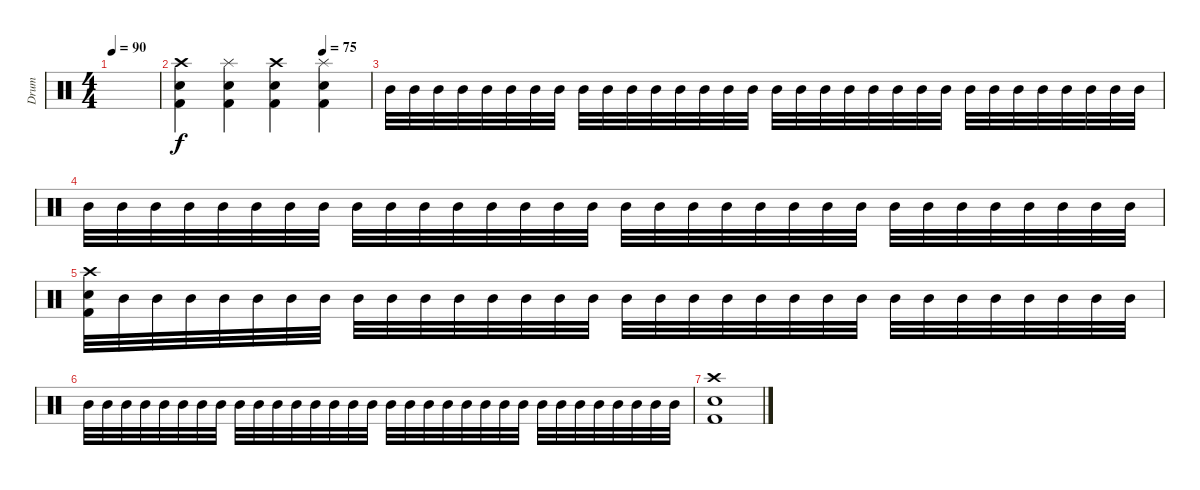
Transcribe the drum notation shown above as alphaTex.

\track ("Drum" "Drum") {instrument percussion}
\staff {score}
\articulation defaults
\ts (4 4)
\tempo 90
\clef neutral
\ks c
|
\tempo (75 0.75)
("Kick (hit) 2" "Snare (hit) 2" "Crash high (hit)").4 ("Kick (hit) 2" "Snare (hit) 2" "Splash (hit)").4 ("Kick (hit) 2" "Snare (hit) 2" "Crash high (hit)").4 ("Kick (hit) 2" "Snare (hit) 2" "Splash (hit)").4 |
"Mid Tom (hit)".32 "Mid Tom (hit)".32 "Mid Tom (hit)".32 "Mid Tom (hit)".32 "Mid Tom (hit)".32 "Mid Tom (hit)".32 "Mid Tom (hit)".32 "Mid Tom (hit)".32 "Mid Tom (hit)".32 "Mid Tom (hit)".32 "Mid Tom (hit)".32 "Mid Tom (hit)".32 "Mid Tom (hit)".32 "Mid Tom (hit)".32 "Mid Tom (hit)".32 "Mid Tom (hit)".32 "Mid Tom (hit)".32 "Mid Tom (hit)".32 "Mid Tom (hit)".32 "Mid Tom (hit)".32 "Mid Tom (hit)".32 "Mid Tom (hit)".32 "Mid Tom (hit)".32 "Mid Tom (hit)".32 "Mid Tom (hit)".32 "Mid Tom (hit)".32 "Mid Tom (hit)".32 "Mid Tom (hit)".32 "Mid Tom (hit)".32 "Mid Tom (hit)".32 "Mid Tom (hit)".32 "Mid Tom (hit)".32 |
"Mid Tom (hit)".32 "Mid Tom (hit)".32 "Mid Tom (hit)".32 "Mid Tom (hit)".32 "Mid Tom (hit)".32 "Mid Tom (hit)".32 "Mid Tom (hit)".32 "Mid Tom (hit)".32 "Mid Tom (hit)".32 "Mid Tom (hit)".32 "Mid Tom (hit)".32 "Mid Tom (hit)".32 "Mid Tom (hit)".32 "Mid Tom (hit)".32 "Mid Tom (hit)".32 "Mid Tom (hit)".32 "Mid Tom (hit)".32 "Mid Tom (hit)".32 "Mid Tom (hit)".32 "Mid Tom (hit)".32 "Mid Tom (hit)".32 "Mid Tom (hit)".32 "Mid Tom (hit)".32 "Mid Tom (hit)".32 "Mid Tom (hit)".32 "Mid Tom (hit)".32 "Mid Tom (hit)".32 "Mid Tom (hit)".32 "Mid Tom (hit)".32 "Mid Tom (hit)".32 "Mid Tom (hit)".32 "Mid Tom (hit)".32 |
("Kick (hit) 2" "Snare (hit) 2" "Crash high (hit)").32 "Mid Tom (hit)".32 "Mid Tom (hit)".32 "Mid Tom (hit)".32 "Mid Tom (hit)".32 "Mid Tom (hit)".32 "Mid Tom (hit)".32 "Mid Tom (hit)".32 "Mid Tom (hit)".32 "Mid Tom (hit)".32 "Mid Tom (hit)".32 "Mid Tom (hit)".32 "Mid Tom (hit)".32 "Mid Tom (hit)".32 "Mid Tom (hit)".32 "Mid Tom (hit)".32 "Mid Tom (hit)".32 "Mid Tom (hit)".32 "Mid Tom (hit)".32 "Mid Tom (hit)".32 "Mid Tom (hit)".32 "Mid Tom (hit)".32 "Mid Tom (hit)".32 "Mid Tom (hit)".32 "Mid Tom (hit)".32 "Mid Tom (hit)".32 "Mid Tom (hit)".32 "Mid Tom (hit)".32 "Mid Tom (hit)".32 "Mid Tom (hit)".32 "Mid Tom (hit)".32 "Mid Tom (hit)".32 |
"Mid Tom (hit)".32 "Mid Tom (hit)".32 "Mid Tom (hit)".32 "Mid Tom (hit)".32 "Mid Tom (hit)".32 "Mid Tom (hit)".32 "Mid Tom (hit)".32 "Mid Tom (hit)".32 "Mid Tom (hit)".32 "Mid Tom (hit)".32 "Mid Tom (hit)".32 "Mid Tom (hit)".32 "Mid Tom (hit)".32 "Mid Tom (hit)".32 "Mid Tom (hit)".32 "Mid Tom (hit)".32 "Mid Tom (hit)".32 "Mid Tom (hit)".32 "Mid Tom (hit)".32 "Mid Tom (hit)".32 "Mid Tom (hit)".32 "Mid Tom (hit)".32 "Mid Tom (hit)".32 "Mid Tom (hit)".32 "Mid Tom (hit)".32 "Mid Tom (hit)".32 "Mid Tom (hit)".32 "Mid Tom (hit)".32 "Mid Tom (hit)".32 "Mid Tom (hit)".32 "Mid Tom (hit)".32 "Mid Tom (hit)".32 |
("Kick (hit) 2" "Snare (hit) 2" "Crash high (hit)").1
